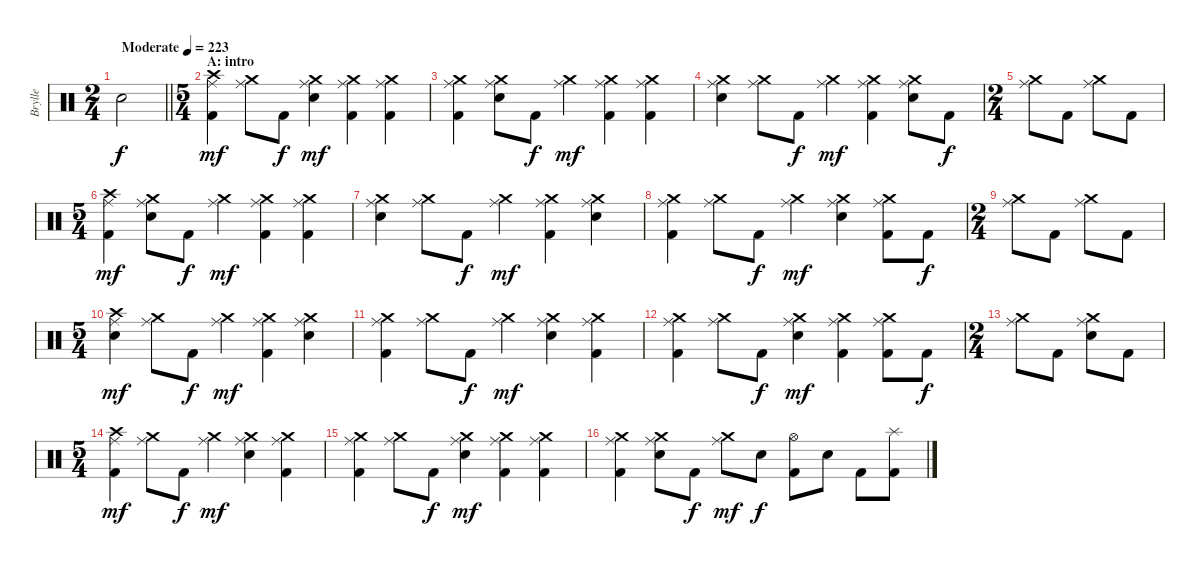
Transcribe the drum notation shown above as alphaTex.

\track ("Brylle" "Brylle") {instrument percussion}
\staff {score}
\articulation defaults
\ts (2 4)
\tempo (223 "Moderate")
\clef neutral
\barLineRight lightlight
\ks c "Electric Snare (hit)".2{dy f}
|
\ts (5 4)
\section ("" "A: intro")
("Crash high (hit)" "Ride (middle)" "Kick (hit) 2").4{dy mf} ("Crash medium (hit)" "Ride (middle)").8 "Kick (hit) 2".8{dy f} ("Crash medium (hit)" "Ride (middle)" "Electric Snare (hit)").4{dy mf} ("Crash medium (hit)" "Ride (middle)" "Kick (hit) 2").4 ("Crash medium (hit)" "Ride (middle)" "Kick (hit) 2").4 |
("Crash medium (hit)" "Ride (middle)" "Kick (hit) 2").4 ("Crash medium (hit)" "Ride (middle)" "Electric Snare (hit)").8 "Kick (hit) 2".8{dy f} ("Crash medium (hit)" "Ride (middle)").4{dy mf} ("Crash medium (hit)" "Ride (middle)" "Kick (hit) 2").4 ("Crash medium (hit)" "Ride (middle)" "Kick (hit) 2").4 |
("Crash medium (hit)" "Ride (middle)" "Electric Snare (hit)").4 ("Crash medium (hit)" "Ride (middle)").8 "Kick (hit) 2".8{dy f} ("Crash medium (hit)" "Ride (middle)").4{dy mf} ("Crash medium (hit)" "Ride (middle)" "Kick (hit) 2").4 ("Crash medium (hit)" "Ride (middle)" "Electric Snare (hit)").8 "Kick (hit) 2".8{dy f} |
\ts (2 4)
("Crash medium (hit)" "Ride (middle)").8 "Kick (hit) 2".8 ("Crash medium (hit)" "Ride (middle)").8 "Kick (hit) 2".8 |
\ts (5 4)
("Crash high (hit)" "Ride (middle)" "Kick (hit) 2").4{dy mf} ("Crash medium (hit)" "Ride (middle)" "Electric Snare (hit)").8 "Kick (hit) 2".8{dy f} ("Crash medium (hit)" "Ride (middle)").4{dy mf} ("Crash medium (hit)" "Ride (middle)" "Kick (hit) 2").4 ("Crash medium (hit)" "Ride (middle)" "Kick (hit) 2").4 |
("Crash medium (hit)" "Ride (middle)" "Electric Snare (hit)").4 ("Crash medium (hit)" "Ride (middle)").8 "Kick (hit) 2".8{dy f} ("Crash medium (hit)" "Ride (middle)").4{dy mf} ("Crash medium (hit)" "Ride (middle)" "Kick (hit) 2").4 ("Crash medium (hit)" "Ride (middle)" "Electric Snare (hit)").4 |
("Crash medium (hit)" "Ride (middle)" "Kick (hit) 2").4 ("Crash medium (hit)" "Ride (middle)").8 "Kick (hit) 2".8{dy f} ("Crash medium (hit)" "Ride (middle)").4{dy mf} ("Crash medium (hit)" "Ride (middle)" "Electric Snare (hit)").4 ("Crash medium (hit)" "Ride (middle)" "Kick (hit) 2").8 "Kick (hit) 2".8{dy f} |
\ts (2 4)
("Crash medium (hit)" "Ride (middle)").8 "Kick (hit) 2".8 ("Crash medium (hit)" "Ride (middle)").8 "Kick (hit) 2".8 |
\ts (5 4)
("Crash high (hit)" "Ride (middle)" "Electric Snare (hit)").4{dy mf} ("Crash medium (hit)" "Ride (middle)").8 "Kick (hit) 2".8{dy f} ("Crash medium (hit)" "Ride (middle)").4{dy mf} ("Crash medium (hit)" "Ride (middle)" "Kick (hit) 2").4 ("Crash medium (hit)" "Ride (middle)" "Electric Snare (hit)").4 |
("Crash medium (hit)" "Ride (middle)" "Kick (hit) 2").4 ("Crash medium (hit)" "Ride (middle)").8 "Kick (hit) 2".8{dy f} ("Crash medium (hit)" "Ride (middle)").4{dy mf} ("Crash medium (hit)" "Ride (middle)" "Electric Snare (hit)").4 ("Crash medium (hit)" "Ride (middle)" "Kick (hit) 2").4 |
("Crash medium (hit)" "Ride (middle)" "Kick (hit) 2").4 ("Crash medium (hit)" "Ride (middle)").8 "Kick (hit) 2".8{dy f} ("Crash medium (hit)" "Ride (middle)" "Electric Snare (hit)").4{dy mf} ("Crash medium (hit)" "Ride (middle)" "Kick (hit) 2").4 ("Crash medium (hit)" "Ride (middle)" "Kick (hit) 2").8 "Kick (hit) 2".8{dy f} |
\ts (2 4)
("Crash medium (hit)" "Ride (middle)").8 "Kick (hit) 2".8 ("Crash medium (hit)" "Ride (middle)" "Electric Snare (hit)").8 "Kick (hit) 2".8 |
\ts (5 4)
("Crash high (hit)" "Ride (middle)" "Kick (hit) 2").4{dy mf} ("Crash medium (hit)" "Ride (middle)").8 "Kick (hit) 2".8{dy f} ("Crash medium (hit)" "Ride (middle)").4{dy mf} ("Crash medium (hit)" "Ride (middle)" "Electric Snare (hit)").4 ("Crash medium (hit)" "Ride (middle)" "Kick (hit) 2").4 |
("Crash medium (hit)" "Ride (middle)" "Kick (hit) 2").4 ("Crash medium (hit)" "Ride (middle)").8 "Kick (hit) 2".8{dy f} ("Crash medium (hit)" "Ride (middle)" "Electric Snare (hit)").4{dy mf} ("Crash medium (hit)" "Ride (middle)" "Kick (hit) 2").4 ("Crash medium (hit)" "Ride (middle)" "Kick (hit) 2").4 |
("Crash medium (hit)" "Ride (middle)" "Kick (hit) 2").4 ("Crash medium (hit)" "Ride (middle)" "Electric Snare (hit)").8 "Kick (hit) 2".8{dy f} ("Crash medium (hit)" "Ride (middle)").8{dy mf} "Electric Snare (hit)".8{dy f} ("Hi-Hat (open)" "Kick (hit) 2").8 "Electric Snare (hit)".8 "Kick (hit) 2".8 ("Splash (hit)" "Kick (hit) 2").8
